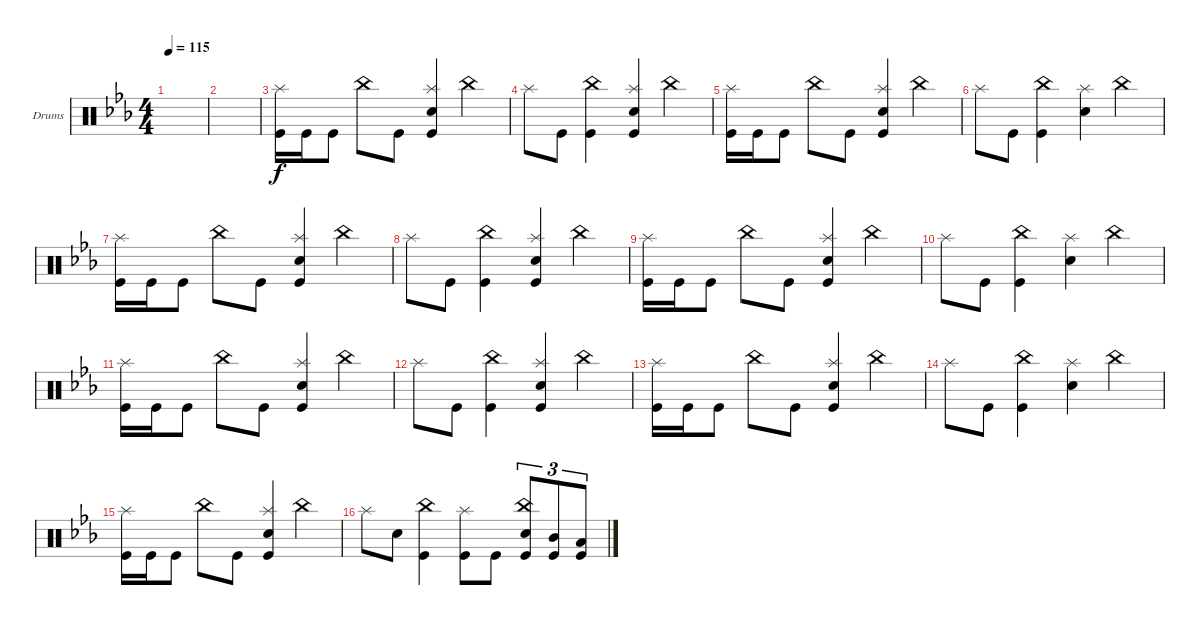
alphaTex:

\bracketExtendMode groupsimilarinstruments
\firstSystemTrackNameOrientation horizontal
\otherSystemsTrackNameOrientation horizontal
\track ("Drumkit" "Drums") {instrument percussion}
\staff {score}
\articulation defaults
\ts (4 4)
\tempo 115
\clef neutral
\ks cminor
|
|
("Kick (hit)" "Splash (hit)").16 "Kick (hit)".16 "Kick (hit)".8 "China (hit)".8 "Kick (hit)".8 ("Snare (hit) 2" "Kick (hit)" "Splash (hit)").4 "China (hit)".4 |
"Splash (hit)".8 "Kick (hit)".8 ("Kick (hit)" "China (hit)").4 ("Kick (hit)" "Splash (hit)" "Snare (hit) 2").4 "China (hit)".4 |
("Kick (hit)" "Splash (hit)").16 "Kick (hit)".16 "Kick (hit)".8 "China (hit)".8 "Kick (hit)".8 ("Snare (hit) 2" "Kick (hit)" "Splash (hit)").4 "China (hit)".4 |
"Splash (hit)".8 "Kick (hit)".8 ("Kick (hit)" "China (hit)").4 ("Splash (hit)" "Snare (hit) 2").4 "China (hit)".4 |
("Kick (hit)" "Splash (hit)").16 "Kick (hit)".16 "Kick (hit)".8 "China (hit)".8 "Kick (hit)".8 ("Snare (hit) 2" "Kick (hit)" "Splash (hit)").4 "China (hit)".4 |
"Splash (hit)".8 "Kick (hit)".8 ("Kick (hit)" "China (hit)").4 ("Kick (hit)" "Splash (hit)" "Snare (hit) 2").4 "China (hit)".4 |
("Kick (hit)" "Splash (hit)").16 "Kick (hit)".16 "Kick (hit)".8 "China (hit)".8 "Kick (hit)".8 ("Snare (hit) 2" "Kick (hit)" "Splash (hit)").4 "China (hit)".4 |
"Splash (hit)".8 "Kick (hit)".8 ("Kick (hit)" "China (hit)").4 ("Splash (hit)" "Snare (hit) 2").4 "China (hit)".4 |
("Kick (hit)" "Splash (hit)").16 "Kick (hit)".16 "Kick (hit)".8 "China (hit)".8 "Kick (hit)".8 ("Snare (hit) 2" "Kick (hit)" "Splash (hit)").4 "China (hit)".4 |
"Splash (hit)".8 "Kick (hit)".8 ("Kick (hit)" "China (hit)").4 ("Kick (hit)" "Splash (hit)" "Snare (hit) 2").4 "China (hit)".4 |
("Kick (hit)" "Splash (hit)").16 "Kick (hit)".16 "Kick (hit)".8 "China (hit)".8 "Kick (hit)".8 ("Snare (hit) 2" "Kick (hit)" "Splash (hit)").4 "China (hit)".4 |
"Splash (hit)".8 "Kick (hit)".8 ("Kick (hit)" "China (hit)").4 ("Splash (hit)" "Snare (hit) 2").4 "China (hit)".4 |
("Kick (hit)" "Splash (hit)").16 "Kick (hit)".16 "Kick (hit)".8 "China (hit)".8 "Kick (hit)".8 ("Snare (hit) 2" "Kick (hit)" "Splash (hit)").4 "China (hit)".4 |
"Splash (hit)".8 "Snare (hit) 2".8 ("Kick (hit)" "China (hit)").4 ("Kick (hit)" "Splash (hit)").8 "Kick (hit)".8 ("China (hit)" "Snare (hit) 2" "Kick (hit)").8{tu (3 2)} ("Mid Tom (hit)" "Kick (hit)").8{tu (3 2)} ("Low Tom (hit)" "Kick (hit)").8{tu (3 2)}
